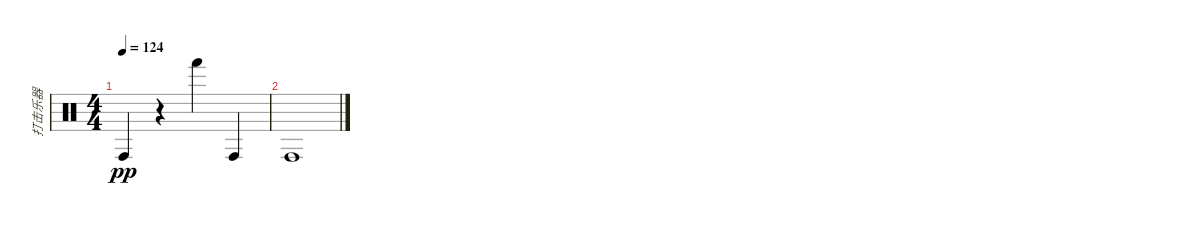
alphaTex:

\track ("打击乐器" "打击乐器") {instrument percussion}
\staff {score}
\articulation defaults
\ts (4 4)
\tempo 124
\clef neutral
\ks c "Conga high (hit)".4{dy pp}
r.4 "Hand (hit)".4 "Conga high (hit)".4 |
"Conga high (hit)".1
